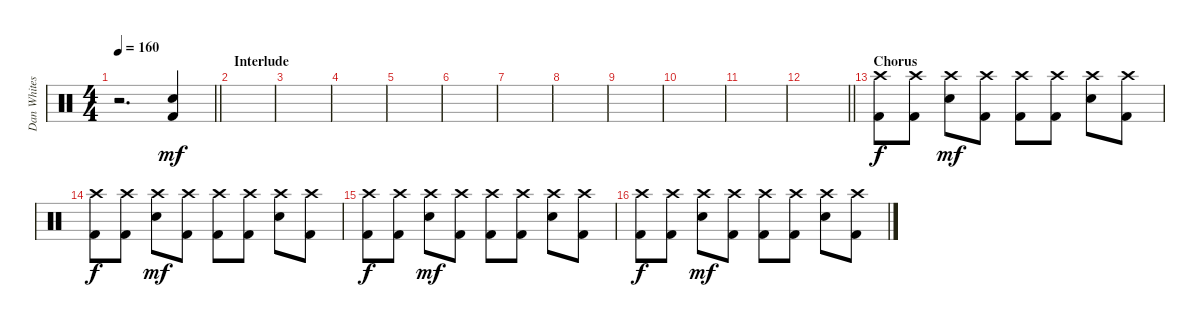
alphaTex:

\track ("Dan Whitesides" "Dan Whites") {instrument percussion}
\staff {score}
\articulation defaults
\ts (4 4)
\tempo 160
\clef neutral
\barLineRight lightlight
\ks c
r.2{d dy mf} ("Snare (hit) 2" "Kick (hit) 2").4 |
\section ("" "Interlude")
|
|
|
|
|
|
|
|
|
|
\barLineRight lightlight
|
\section ("" "Chorus")
("Crash high (hit)" "Kick (hit) 2").8{dy f} ("Crash high (hit)" "Kick (hit) 2").8 ("Crash high (hit)" "Snare (hit) 2").8{dy mf} ("Crash high (hit)" "Kick (hit) 2").8 ("Crash high (hit)" "Kick (hit) 2").8 ("Crash high (hit)" "Kick (hit) 2").8 ("Crash high (hit)" "Snare (hit) 2").8 ("Crash high (hit)" "Kick (hit) 2").8 |
("Crash high (hit)" "Kick (hit) 2").8{dy f} ("Crash high (hit)" "Kick (hit) 2").8 ("Crash high (hit)" "Snare (hit) 2").8{dy mf} ("Crash high (hit)" "Kick (hit) 2").8 ("Crash high (hit)" "Kick (hit) 2").8 ("Crash high (hit)" "Kick (hit) 2").8 ("Crash high (hit)" "Snare (hit) 2").8 ("Crash high (hit)" "Kick (hit) 2").8 |
("Crash high (hit)" "Kick (hit) 2").8{dy f} ("Crash high (hit)" "Kick (hit) 2").8 ("Crash high (hit)" "Snare (hit) 2").8{dy mf} ("Crash high (hit)" "Kick (hit) 2").8 ("Crash high (hit)" "Kick (hit) 2").8 ("Crash high (hit)" "Kick (hit) 2").8 ("Crash high (hit)" "Snare (hit) 2").8 ("Crash high (hit)" "Kick (hit) 2").8 |
("Crash high (hit)" "Kick (hit) 2").8{dy f} ("Crash high (hit)" "Kick (hit) 2").8 ("Crash high (hit)" "Snare (hit) 2").8{dy mf} ("Crash high (hit)" "Kick (hit) 2").8 ("Crash high (hit)" "Kick (hit) 2").8 ("Crash high (hit)" "Kick (hit) 2").8 ("Crash high (hit)" "Snare (hit) 2").8 ("Crash high (hit)" "Kick (hit) 2").8
